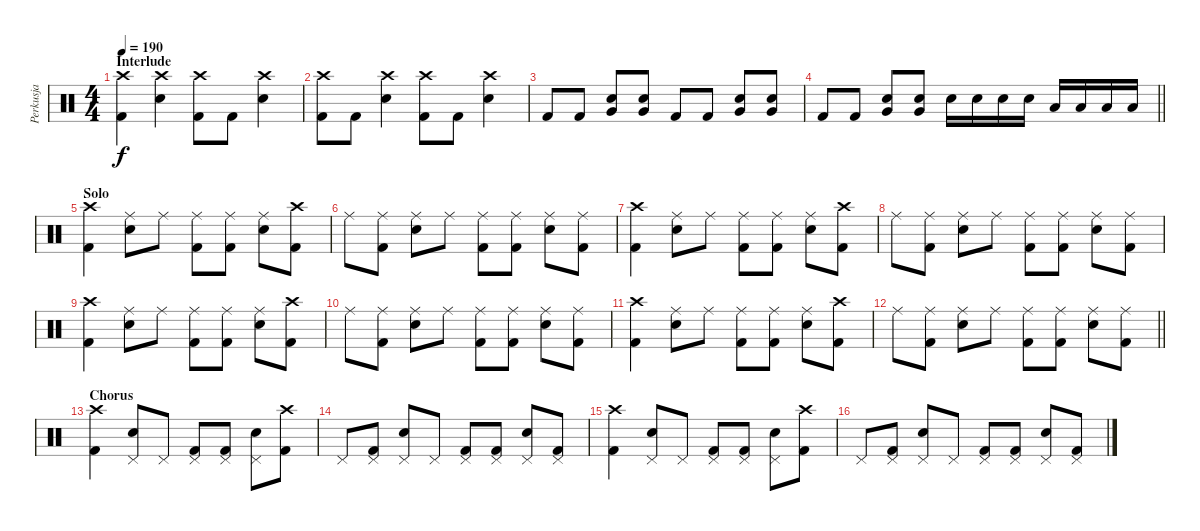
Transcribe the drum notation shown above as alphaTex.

\track ("Perkusja" "Perkusja") {instrument percussion}
\staff {score}
\articulation defaults
\ts (4 4)
\section ("" "Interlude ")
\tempo 190
\clef neutral
\ks c
("Crash high (hit)" "Kick (hit) 2").4{dy f} ("Crash high (hit)" "Electric Snare (hit)").4 ("Crash high (hit)" "Kick (hit) 2").8 "Kick (hit) 2".8 ("Crash high (hit)" "Electric Snare (hit)").4 |
("Crash high (hit)" "Kick (hit) 2").8 "Kick (hit) 2".8 ("Crash high (hit)" "Electric Snare (hit)").4 ("Crash high (hit)" "Kick (hit) 2").8 "Kick (hit) 2".8 ("Crash high (hit)" "Electric Snare (hit)").4 |
"Kick (hit) 2".8 "Kick (hit) 2".8 ("Electric Snare (hit)" "Very Low Tom (hit)").8 ("Electric Snare (hit)" "Very Low Tom (hit)").8 "Kick (hit) 2".8 "Kick (hit) 2".8 ("Electric Snare (hit)" "Very Low Tom (hit)").8 ("Electric Snare (hit)" "Very Low Tom (hit)").8 |
\barLineRight lightlight "Kick (hit) 2".8 "Kick (hit) 2".8
("Electric Snare (hit)" "Very Low Tom (hit)").8 ("Electric Snare (hit)" "Very Low Tom (hit)").8 "Electric Snare (hit)".16 "Electric Snare (hit)".16 "Electric Snare (hit)".16 "Electric Snare (hit)".16 "Low Floor Tom (hit)".16 "Low Floor Tom (hit)".16 "Low Floor Tom (hit)".16 "Low Floor Tom (hit)".16 |
\section ("" "Solo")
("Crash high (hit)" "Kick (hit) 2").4 ("Ride (middle)" "Electric Snare (hit)").8 "Ride (middle)".8 ("Ride (middle)" "Kick (hit) 2").8 ("Ride (middle)" "Kick (hit) 2").8 ("Ride (middle)" "Electric Snare (hit)").8 ("Crash high (hit)" "Kick (hit) 2").8 |
"Ride (middle)".8 ("Ride (middle)" "Kick (hit) 2").8 ("Ride (middle)" "Electric Snare (hit)").8 "Ride (middle)".8 ("Ride (middle)" "Kick (hit) 2").8 ("Ride (middle)" "Kick (hit) 2").8 ("Ride (middle)" "Electric Snare (hit)").8 ("Ride (middle)" "Kick (hit) 2").8 |
("Crash high (hit)" "Kick (hit) 2").4 ("Ride (middle)" "Electric Snare (hit)").8 "Ride (middle)".8 ("Ride (middle)" "Kick (hit) 2").8 ("Ride (middle)" "Kick (hit) 2").8 ("Ride (middle)" "Electric Snare (hit)").8 ("Crash high (hit)" "Kick (hit) 2").8 |
"Ride (middle)".8 ("Ride (middle)" "Kick (hit) 2").8 ("Ride (middle)" "Electric Snare (hit)").8 "Ride (middle)".8 ("Ride (middle)" "Kick (hit) 2").8 ("Ride (middle)" "Kick (hit) 2").8 ("Ride (middle)" "Electric Snare (hit)").8 ("Ride (middle)" "Kick (hit) 2").8 |
("Crash high (hit)" "Kick (hit) 2").4 ("Ride (middle)" "Electric Snare (hit)").8 "Ride (middle)".8 ("Ride (middle)" "Kick (hit) 2").8 ("Ride (middle)" "Kick (hit) 2").8 ("Ride (middle)" "Electric Snare (hit)").8 ("Crash high (hit)" "Kick (hit) 2").8 |
"Ride (middle)".8 ("Ride (middle)" "Kick (hit) 2").8 ("Ride (middle)" "Electric Snare (hit)").8 "Ride (middle)".8 ("Ride (middle)" "Kick (hit) 2").8 ("Ride (middle)" "Kick (hit) 2").8 ("Ride (middle)" "Electric Snare (hit)").8 ("Ride (middle)" "Kick (hit) 2").8 |
("Crash high (hit)" "Kick (hit) 2").4 ("Ride (middle)" "Electric Snare (hit)").8 "Ride (middle)".8 ("Ride (middle)" "Kick (hit) 2").8 ("Ride (middle)" "Kick (hit) 2").8 ("Ride (middle)" "Electric Snare (hit)").8 ("Crash high (hit)" "Kick (hit) 2").8 |
\barLineRight lightlight "Ride (middle)".8
("Ride (middle)" "Kick (hit) 2").8 ("Ride (middle)" "Electric Snare (hit)").8 "Ride (middle)".8 ("Ride (middle)" "Kick (hit) 2").8 ("Ride (middle)" "Kick (hit) 2").8 ("Ride (middle)" "Electric Snare (hit)").8 ("Ride (middle)" "Kick (hit) 2").8 |
\section ("" "Chorus")
("Crash high (hit)" "Kick (hit) 2").4 ("Pedal Hi-Hat (hit)" "Electric Snare (hit)").8 "Pedal Hi-Hat (hit)".8 ("Pedal Hi-Hat (hit)" "Kick (hit) 2").8 ("Pedal Hi-Hat (hit)" "Kick (hit) 2").8 ("Pedal Hi-Hat (hit)" "Electric Snare (hit)").8 ("Crash high (hit)" "Kick (hit) 2").8 |
"Pedal Hi-Hat (hit)".8 ("Pedal Hi-Hat (hit)" "Kick (hit) 2").8 ("Pedal Hi-Hat (hit)" "Electric Snare (hit)").8 "Pedal Hi-Hat (hit)".8 ("Pedal Hi-Hat (hit)" "Kick (hit) 2").8 ("Pedal Hi-Hat (hit)" "Kick (hit) 2").8 ("Pedal Hi-Hat (hit)" "Electric Snare (hit)").8 ("Pedal Hi-Hat (hit)" "Kick (hit) 2").8 |
("Crash high (hit)" "Kick (hit) 2").4 ("Pedal Hi-Hat (hit)" "Electric Snare (hit)").8 "Pedal Hi-Hat (hit)".8 ("Pedal Hi-Hat (hit)" "Kick (hit) 2").8 ("Pedal Hi-Hat (hit)" "Kick (hit) 2").8 ("Pedal Hi-Hat (hit)" "Electric Snare (hit)").8 ("Crash high (hit)" "Kick (hit) 2").8 |
"Pedal Hi-Hat (hit)".8 ("Pedal Hi-Hat (hit)" "Kick (hit) 2").8 ("Pedal Hi-Hat (hit)" "Electric Snare (hit)").8 "Pedal Hi-Hat (hit)".8 ("Pedal Hi-Hat (hit)" "Kick (hit) 2").8 ("Pedal Hi-Hat (hit)" "Kick (hit) 2").8 ("Pedal Hi-Hat (hit)" "Electric Snare (hit)").8 ("Pedal Hi-Hat (hit)" "Kick (hit) 2").8
